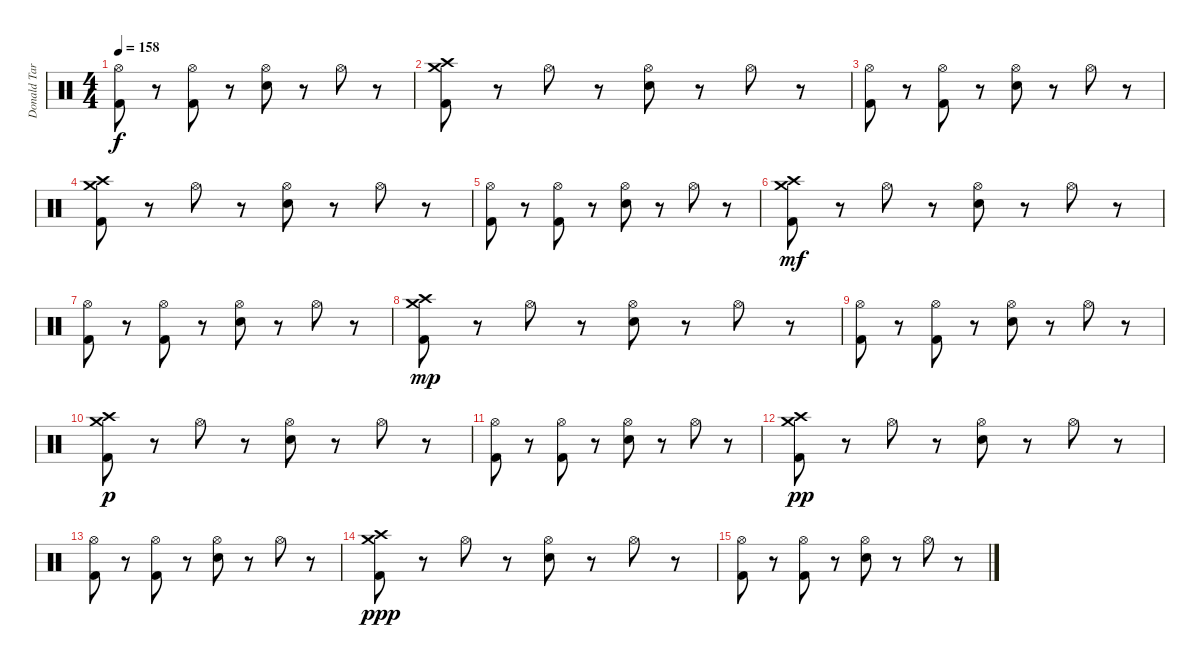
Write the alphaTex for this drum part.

\track ("Donald Tardy (Drums)" "Donald Tar") {instrument percussion}
\staff {score}
\articulation defaults
\ts (4 4)
\tempo 158
\clef neutral
\ks c
("Kick (hit) 2" "Hi-Hat (open)").8{dy f} r.8 ("Kick (hit) 2" "Hi-Hat (open)").8 r.8 ("Electric Snare (hit)" "Hi-Hat (open)").8 r.8 "Hi-Hat (open)".8 r.8 |
("Kick (hit) 2" "Crash medium (hit)" "Crash high (hit)").8 r.8 "Hi-Hat (open)".8 r.8 ("Electric Snare (hit)" "Hi-Hat (open)").8 r.8 "Hi-Hat (open)".8 r.8 |
("Kick (hit) 2" "Hi-Hat (open)").8 r.8 ("Kick (hit) 2" "Hi-Hat (open)").8 r.8 ("Electric Snare (hit)" "Hi-Hat (open)").8 r.8 "Hi-Hat (open)".8 r.8 |
("Kick (hit) 2" "Crash medium (hit)" "Crash high (hit)").8 r.8 "Hi-Hat (open)".8 r.8 ("Electric Snare (hit)" "Hi-Hat (open)").8 r.8 "Hi-Hat (open)".8 r.8 |
("Kick (hit) 2" "Hi-Hat (open)").8 r.8 ("Kick (hit) 2" "Hi-Hat (open)").8 r.8 ("Electric Snare (hit)" "Hi-Hat (open)").8 r.8 "Hi-Hat (open)".8 r.8 |
("Kick (hit) 2" "Crash medium (hit)" "Crash high (hit)").8{dy mf} r.8 "Hi-Hat (open)".8 r.8 ("Electric Snare (hit)" "Hi-Hat (open)").8 r.8 "Hi-Hat (open)".8 r.8 |
("Kick (hit) 2" "Hi-Hat (open)").8 r.8 ("Kick (hit) 2" "Hi-Hat (open)").8 r.8 ("Electric Snare (hit)" "Hi-Hat (open)").8 r.8 "Hi-Hat (open)".8 r.8 |
("Kick (hit) 2" "Crash medium (hit)" "Crash high (hit)").8{dy mp} r.8 "Hi-Hat (open)".8 r.8 ("Electric Snare (hit)" "Hi-Hat (open)").8 r.8 "Hi-Hat (open)".8 r.8 |
("Kick (hit) 2" "Hi-Hat (open)").8 r.8 ("Kick (hit) 2" "Hi-Hat (open)").8 r.8 ("Electric Snare (hit)" "Hi-Hat (open)").8 r.8 "Hi-Hat (open)".8 r.8 |
("Kick (hit) 2" "Crash medium (hit)" "Crash high (hit)").8{dy p} r.8 "Hi-Hat (open)".8 r.8 ("Electric Snare (hit)" "Hi-Hat (open)").8 r.8 "Hi-Hat (open)".8 r.8 |
("Kick (hit) 2" "Hi-Hat (open)").8 r.8 ("Kick (hit) 2" "Hi-Hat (open)").8 r.8 ("Electric Snare (hit)" "Hi-Hat (open)").8 r.8 "Hi-Hat (open)".8 r.8 |
("Kick (hit) 2" "Crash medium (hit)" "Crash high (hit)").8{dy pp} r.8 "Hi-Hat (open)".8 r.8 ("Electric Snare (hit)" "Hi-Hat (open)").8 r.8 "Hi-Hat (open)".8 r.8 |
("Kick (hit) 2" "Hi-Hat (open)").8 r.8 ("Kick (hit) 2" "Hi-Hat (open)").8 r.8 ("Electric Snare (hit)" "Hi-Hat (open)").8 r.8 "Hi-Hat (open)".8 r.8 |
("Kick (hit) 2" "Crash medium (hit)" "Crash high (hit)").8{dy ppp} r.8 "Hi-Hat (open)".8 r.8 ("Electric Snare (hit)" "Hi-Hat (open)").8 r.8 "Hi-Hat (open)".8 r.8 |
("Kick (hit) 2" "Hi-Hat (open)").8 r.8 ("Kick (hit) 2" "Hi-Hat (open)").8 r.8 ("Electric Snare (hit)" "Hi-Hat (open)").8 r.8 "Hi-Hat (open)".8 r.8
